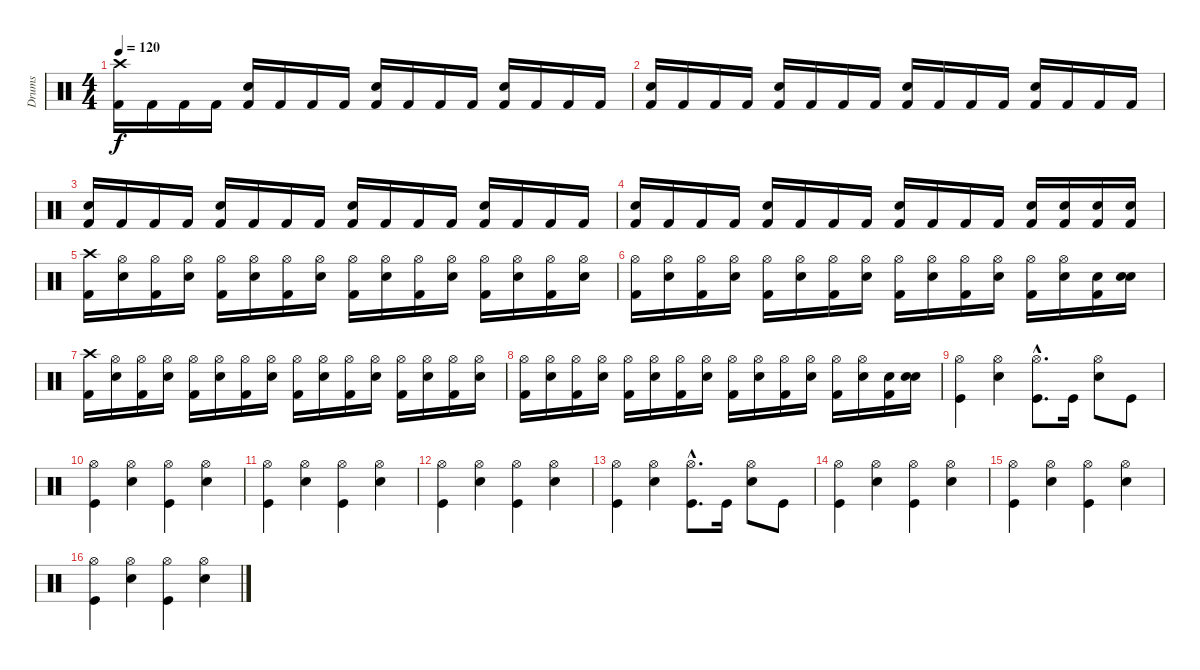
\track ("Drums" "Drums") {instrument percussion}
\staff {score}
\articulation defaults
\ts (4 4)
\tempo 120
\clef neutral
\ks c
("Crash high (hit)" "Kick (hit) 2").16{dy f} "Kick (hit) 2".16 "Kick (hit) 2".16 "Kick (hit) 2".16 ("Snare (hit) 2" "Kick (hit) 2").16 "Kick (hit) 2".16 "Kick (hit) 2".16 "Kick (hit) 2".16 ("Snare (hit) 2" "Kick (hit) 2").16 "Kick (hit) 2".16 "Kick (hit) 2".16 "Kick (hit) 2".16 ("Snare (hit) 2" "Kick (hit) 2").16 "Kick (hit) 2".16 "Kick (hit) 2".16 "Kick (hit) 2".16 |
("Snare (hit) 2" "Kick (hit) 2").16 "Kick (hit) 2".16 "Kick (hit) 2".16 "Kick (hit) 2".16 ("Snare (hit) 2" "Kick (hit) 2").16 "Kick (hit) 2".16 "Kick (hit) 2".16 "Kick (hit) 2".16 ("Snare (hit) 2" "Kick (hit) 2").16 "Kick (hit) 2".16 "Kick (hit) 2".16 "Kick (hit) 2".16 ("Snare (hit) 2" "Kick (hit) 2").16 "Kick (hit) 2".16 "Kick (hit) 2".16 "Kick (hit) 2".16 |
("Snare (hit) 2" "Kick (hit) 2").16 "Kick (hit) 2".16 "Kick (hit) 2".16 "Kick (hit) 2".16 ("Snare (hit) 2" "Kick (hit) 2").16 "Kick (hit) 2".16 "Kick (hit) 2".16 "Kick (hit) 2".16 ("Snare (hit) 2" "Kick (hit) 2").16 "Kick (hit) 2".16 "Kick (hit) 2".16 "Kick (hit) 2".16 ("Snare (hit) 2" "Kick (hit) 2").16 "Kick (hit) 2".16 "Kick (hit) 2".16 "Kick (hit) 2".16 |
("Snare (hit) 2" "Kick (hit) 2").16 "Kick (hit) 2".16 "Kick (hit) 2".16 "Kick (hit) 2".16 ("Snare (hit) 2" "Kick (hit) 2").16 "Kick (hit) 2".16 "Kick (hit) 2".16 "Kick (hit) 2".16 ("Snare (hit) 2" "Kick (hit) 2").16 "Kick (hit) 2".16 "Kick (hit) 2".16 "Kick (hit) 2".16 ("Snare (hit) 2" "Kick (hit) 2").16 ("Snare (hit) 2" "Kick (hit) 2").16 ("Snare (hit) 2" "Kick (hit) 2").16 ("Snare (hit) 2" "Kick (hit) 2").16 |
("Crash high (hit)" "Kick (hit) 2").16 ("Hi-Hat (open)" "Snare (hit) 2").16 ("Hi-Hat (open)" "Kick (hit) 2").16 ("Hi-Hat (open)" "Snare (hit) 2").16 ("Hi-Hat (open)" "Kick (hit) 2").16 ("Hi-Hat (open)" "Snare (hit) 2").16 ("Hi-Hat (open)" "Kick (hit) 2").16 ("Hi-Hat (open)" "Snare (hit) 2").16 ("Hi-Hat (open)" "Kick (hit) 2").16 ("Hi-Hat (open)" "Snare (hit) 2").16 ("Hi-Hat (open)" "Kick (hit) 2").16 ("Hi-Hat (open)" "Snare (hit) 2").16 ("Hi-Hat (open)" "Kick (hit) 2").16 ("Hi-Hat (open)" "Snare (hit) 2").16 ("Hi-Hat (open)" "Kick (hit) 2").16 ("Hi-Hat (open)" "Snare (hit) 2").16 |
("Hi-Hat (open)" "Kick (hit) 2").16 ("Hi-Hat (open)" "Snare (hit) 2").16 ("Hi-Hat (open)" "Kick (hit) 2").16 ("Hi-Hat (open)" "Snare (hit) 2").16 ("Hi-Hat (open)" "Kick (hit) 2").16 ("Hi-Hat (open)" "Snare (hit) 2").16 ("Hi-Hat (open)" "Kick (hit) 2").16 ("Hi-Hat (open)" "Snare (hit) 2").16 ("Hi-Hat (open)" "Kick (hit) 2").16 ("Hi-Hat (open)" "Snare (hit) 2").16 ("Hi-Hat (open)" "Kick (hit) 2").16 ("Hi-Hat (open)" "Snare (hit) 2").16 ("Hi-Hat (open)" "Kick (hit) 2").16 ("Hi-Hat (open)" "Snare (hit) 2").16 ("Snare (hit) 2" "Kick (hit) 2").16 ("Snare (hit) 2" "Snare (hit) 2").16 |
("Crash high (hit)" "Kick (hit) 2").16 ("Hi-Hat (open)" "Snare (hit) 2").16 ("Hi-Hat (open)" "Kick (hit) 2").16 ("Hi-Hat (open)" "Snare (hit) 2").16 ("Hi-Hat (open)" "Kick (hit) 2").16 ("Hi-Hat (open)" "Snare (hit) 2").16 ("Hi-Hat (open)" "Kick (hit) 2").16 ("Hi-Hat (open)" "Snare (hit) 2").16 ("Hi-Hat (open)" "Kick (hit) 2").16 ("Hi-Hat (open)" "Snare (hit) 2").16 ("Hi-Hat (open)" "Kick (hit) 2").16 ("Hi-Hat (open)" "Snare (hit) 2").16 ("Hi-Hat (open)" "Kick (hit) 2").16 ("Hi-Hat (open)" "Snare (hit) 2").16 ("Hi-Hat (open)" "Kick (hit) 2").16 ("Hi-Hat (open)" "Snare (hit) 2").16 |
("Hi-Hat (open)" "Kick (hit) 2").16 ("Hi-Hat (open)" "Snare (hit) 2").16 ("Hi-Hat (open)" "Kick (hit) 2").16 ("Hi-Hat (open)" "Snare (hit) 2").16 ("Hi-Hat (open)" "Kick (hit) 2").16 ("Hi-Hat (open)" "Snare (hit) 2").16 ("Hi-Hat (open)" "Kick (hit) 2").16 ("Hi-Hat (open)" "Snare (hit) 2").16 ("Hi-Hat (open)" "Kick (hit) 2").16 ("Hi-Hat (open)" "Snare (hit) 2").16 ("Hi-Hat (open)" "Kick (hit) 2").16 ("Hi-Hat (open)" "Snare (hit) 2").16 ("Hi-Hat (open)" "Kick (hit) 2").16 ("Hi-Hat (open)" "Snare (hit) 2").16 ("Snare (hit) 2" "Kick (hit) 2").16 ("Snare (hit) 2" "Snare (hit) 2").16 |
("Hi-Hat (open)" "Kick (hit)").4 ("Hi-Hat (open)" "Snare (hit) 2").4 ("Hi-Hat (open)"{hac} "Kick (hit)"{hac}).8{d} "Kick (hit)".16 ("Hi-Hat (open)" "Snare (hit) 2").8 "Kick (hit)".8 |
("Hi-Hat (open)" "Kick (hit)").4 ("Hi-Hat (open)" "Snare (hit) 2").4 ("Hi-Hat (open)" "Kick (hit)").4 ("Hi-Hat (open)" "Snare (hit) 2").4 |
("Hi-Hat (open)" "Kick (hit)").4 ("Hi-Hat (open)" "Snare (hit) 2").4 ("Hi-Hat (open)" "Kick (hit)").4 ("Hi-Hat (open)" "Snare (hit) 2").4 |
("Hi-Hat (open)" "Kick (hit)").4 ("Hi-Hat (open)" "Snare (hit) 2").4 ("Hi-Hat (open)" "Kick (hit)").4 ("Hi-Hat (open)" "Snare (hit) 2").4 |
("Hi-Hat (open)" "Kick (hit)").4 ("Hi-Hat (open)" "Snare (hit) 2").4 ("Hi-Hat (open)"{hac} "Kick (hit)"{hac}).8{d} "Kick (hit)".16 ("Hi-Hat (open)" "Snare (hit) 2").8 "Kick (hit)".8 |
("Hi-Hat (open)" "Kick (hit)").4 ("Hi-Hat (open)" "Snare (hit) 2").4 ("Hi-Hat (open)" "Kick (hit)").4 ("Hi-Hat (open)" "Snare (hit) 2").4 |
("Hi-Hat (open)" "Kick (hit)").4 ("Hi-Hat (open)" "Snare (hit) 2").4 ("Hi-Hat (open)" "Kick (hit)").4 ("Hi-Hat (open)" "Snare (hit) 2").4 |
("Hi-Hat (open)" "Kick (hit)").4 ("Hi-Hat (open)" "Snare (hit) 2").4 ("Hi-Hat (open)" "Kick (hit)").4 ("Hi-Hat (open)" "Snare (hit) 2").4
